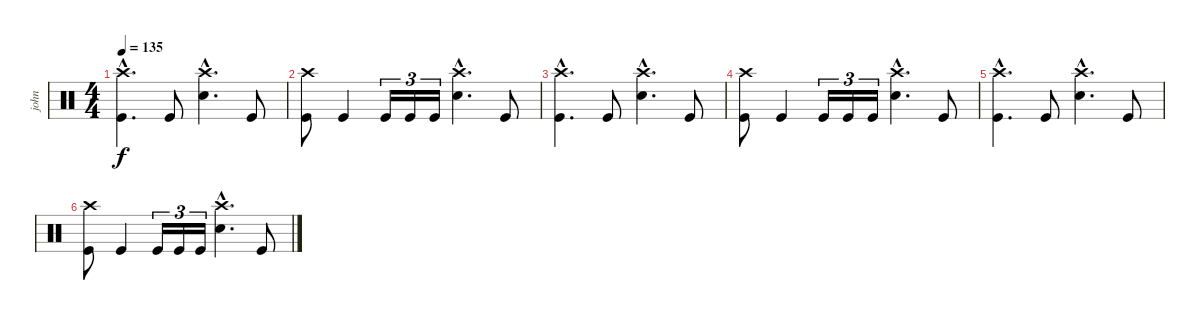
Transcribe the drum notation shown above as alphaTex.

\track ("john" "john") {instrument percussion}
\staff {score}
\articulation defaults
\ts (4 4)
\tempo 135
\clef neutral
\ks c
("Kick (hit)"{hac} "Crash high (hit)"{hac}).4{d dy f} "Kick (hit)".8 ("Snare (hit) 2"{hac} "Crash high (hit)"{hac}).4{d} "Kick (hit)".8 |
("Kick (hit)" "Crash high (hit)").8 "Kick (hit)".4 "Kick (hit)".16{tu (3 2)} "Kick (hit)".16{tu (3 2)} "Kick (hit)".16{tu (3 2)} ("Snare (hit) 2"{hac} "Crash high (hit)"{hac}).4{d} "Kick (hit)".8 |
("Kick (hit)"{hac} "Crash high (hit)"{hac}).4{d} "Kick (hit)".8 ("Snare (hit) 2"{hac} "Crash high (hit)"{hac}).4{d} "Kick (hit)".8 |
("Kick (hit)" "Crash high (hit)").8 "Kick (hit)".4 "Kick (hit)".16{tu (3 2)} "Kick (hit)".16{tu (3 2)} "Kick (hit)".16{tu (3 2)} ("Snare (hit) 2"{hac} "Crash high (hit)"{hac}).4{d} "Kick (hit)".8 |
("Kick (hit)"{hac} "Crash high (hit)"{hac}).4{d} "Kick (hit)".8 ("Snare (hit) 2"{hac} "Crash high (hit)"{hac}).4{d} "Kick (hit)".8 |
("Kick (hit)" "Crash high (hit)").8 "Kick (hit)".4 "Kick (hit)".16{tu (3 2)} "Kick (hit)".16{tu (3 2)} "Kick (hit)".16{tu (3 2)} ("Snare (hit) 2"{hac} "Crash high (hit)"{hac}).4{d} "Kick (hit)".8
